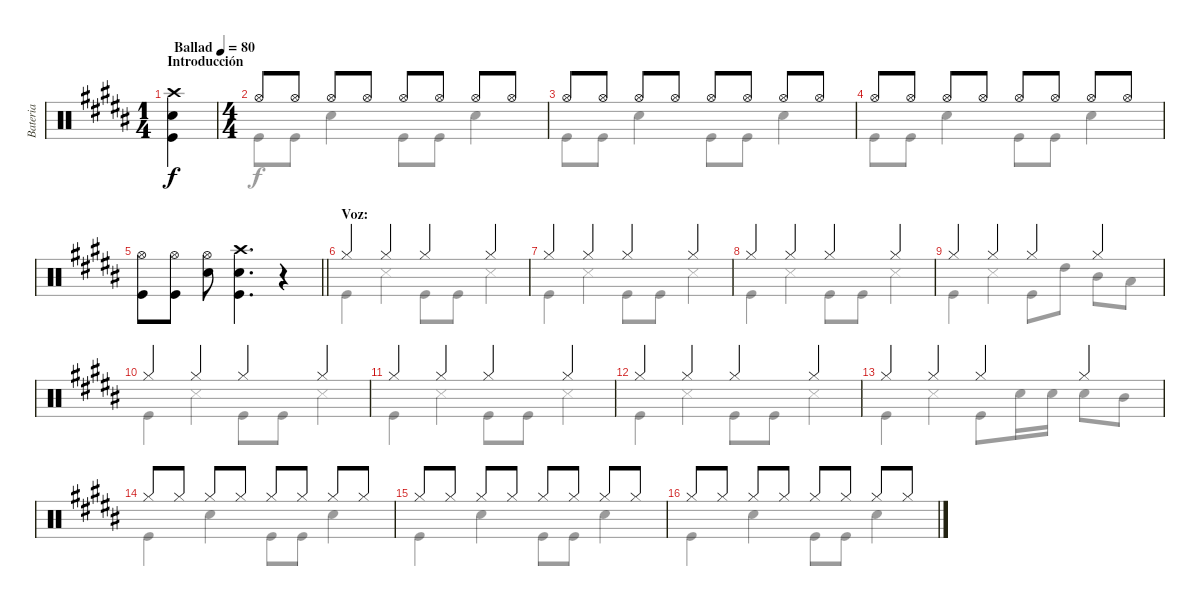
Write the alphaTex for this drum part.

\track ("Bateria" "Bateria") {instrument percussion}
\staff {score}
\articulation defaults
\voice
\ts (1 4)
\section ("" "Introducción")
\tempo (80 "Ballad")
\clef neutral
\ks b
("Crash high (hit)" "Snare (hit) 2" "Kick (hit)").4{dy f} |
\ts (4 4)
"Hi-Hat (open)".8 "Hi-Hat (open)".8 "Hi-Hat (open)".8 "Hi-Hat (open)".8 "Hi-Hat (open)".8 "Hi-Hat (open)".8 "Hi-Hat (open)".8 "Hi-Hat (open)".8 |
"Hi-Hat (open)".8 "Hi-Hat (open)".8 "Hi-Hat (open)".8 "Hi-Hat (open)".8 "Hi-Hat (open)".8 "Hi-Hat (open)".8 "Hi-Hat (open)".8 "Hi-Hat (open)".8 |
"Hi-Hat (open)".8 "Hi-Hat (open)".8 "Hi-Hat (open)".8 "Hi-Hat (open)".8 "Hi-Hat (open)".8 "Hi-Hat (open)".8 "Hi-Hat (open)".8 "Hi-Hat (open)".8 |
\barLineRight lightlight
("Hi-Hat (open)" "Kick (hit)").8 ("Hi-Hat (open)" "Kick (hit)").8 ("Hi-Hat (open)" "Snare (hit) 2").8 ("Crash high (hit)" "Snare (hit) 2" "Kick (hit)").4{d} r.4 |
\section ("" "Voz:")
"Hi-Hat (closed)".4 "Hi-Hat (closed)".4 "Hi-Hat (closed)".4 "Hi-Hat (closed)".4 |
"Hi-Hat (closed)".4 "Hi-Hat (closed)".4 "Hi-Hat (closed)".4 "Hi-Hat (closed)".4 |
"Hi-Hat (closed)".4 "Hi-Hat (closed)".4 "Hi-Hat (closed)".4 "Hi-Hat (closed)".4 |
"Hi-Hat (closed)".4 "Hi-Hat (closed)".4 "Hi-Hat (closed)".4 "Hi-Hat (closed)".4 |
"Hi-Hat (closed)".4 "Hi-Hat (closed)".4 "Hi-Hat (closed)".4 "Hi-Hat (closed)".4 |
"Hi-Hat (closed)".4 "Hi-Hat (closed)".4 "Hi-Hat (closed)".4 "Hi-Hat (closed)".4 |
"Hi-Hat (closed)".4 "Hi-Hat (closed)".4 "Hi-Hat (closed)".4 "Hi-Hat (closed)".4 |
"Hi-Hat (closed)".4 "Hi-Hat (closed)".4 "Hi-Hat (closed)".4 "Hi-Hat (closed)".4 |
"Hi-Hat (closed)".8 "Hi-Hat (closed)".8 "Hi-Hat (closed)".8 "Hi-Hat (closed)".8 "Hi-Hat (closed)".8 "Hi-Hat (closed)".8 "Hi-Hat (closed)".8 "Hi-Hat (closed)".8 |
"Hi-Hat (closed)".8 "Hi-Hat (closed)".8 "Hi-Hat (closed)".8 "Hi-Hat (closed)".8 "Hi-Hat (closed)".8 "Hi-Hat (closed)".8 "Hi-Hat (closed)".8 "Hi-Hat (closed)".8 |
"Hi-Hat (closed)".8 "Hi-Hat (closed)".8 "Hi-Hat (closed)".8 "Hi-Hat (closed)".8 "Hi-Hat (closed)".8 "Hi-Hat (closed)".8 "Hi-Hat (closed)".8 "Hi-Hat (closed)".8
\voice
\clef neutral
\ottava regular
\simile none
\ks b
|
"Kick (hit)".8 "Kick (hit)".8 "Snare (hit) 2".4 "Kick (hit)".8 "Kick (hit)".8 "Snare (hit) 2".4 |
"Kick (hit)".8 "Kick (hit)".8 "Snare (hit) 2".4 "Kick (hit)".8 "Kick (hit)".8 "Snare (hit) 2".4 |
"Kick (hit)".8 "Kick (hit)".8 "Snare (hit) 2".4 "Kick (hit)".8 "Kick (hit)".8 "Snare (hit) 2".4 |
\barLineRight lightlight
|
"Kick (hit)".4 "Snare (side stick) 3".4 "Kick (hit)".8 "Kick (hit)".8 "Snare (side stick) 3".4 |
"Kick (hit)".4 "Snare (side stick) 3".4 "Kick (hit)".8 "Kick (hit)".8 "Snare (side stick) 3".4 |
"Kick (hit)".4 "Snare (side stick) 3".4 "Kick (hit)".8 "Kick (hit)".8 "Snare (side stick) 3".4 |
"Kick (hit)".4 "Snare (side stick) 3".4 "Kick (hit)".8 "High Tom (hit)".8 "Mid Tom (hit)".8 "Low Tom (hit)".8 |
"Kick (hit)".4 "Snare (side stick) 3".4 "Kick (hit)".8 "Kick (hit)".8 "Snare (side stick) 3".4 |
"Kick (hit)".4 "Snare (side stick) 3".4 "Kick (hit)".8 "Kick (hit)".8 "Snare (side stick) 3".4 |
"Kick (hit)".4 "Snare (side stick) 3".4 "Kick (hit)".8 "Kick (hit)".8 "Snare (side stick) 3".4 |
"Kick (hit)".4 "Snare (side stick) 3".4 "Kick (hit)".8 "Snare (hit) 2".16 "Snare (hit) 2".16 "Snare (hit) 2".8 "Mid Tom (hit)".8 |
"Kick (hit)".4 "Snare (hit) 2".4 "Kick (hit)".8 "Kick (hit)".8 "Snare (hit) 2".4 |
"Kick (hit)".4 "Snare (hit) 2".4 "Kick (hit)".8 "Kick (hit)".8 "Snare (hit) 2".4 |
"Kick (hit)".4 "Snare (hit) 2".4 "Kick (hit)".8 "Kick (hit)".8 "Snare (hit) 2".4
